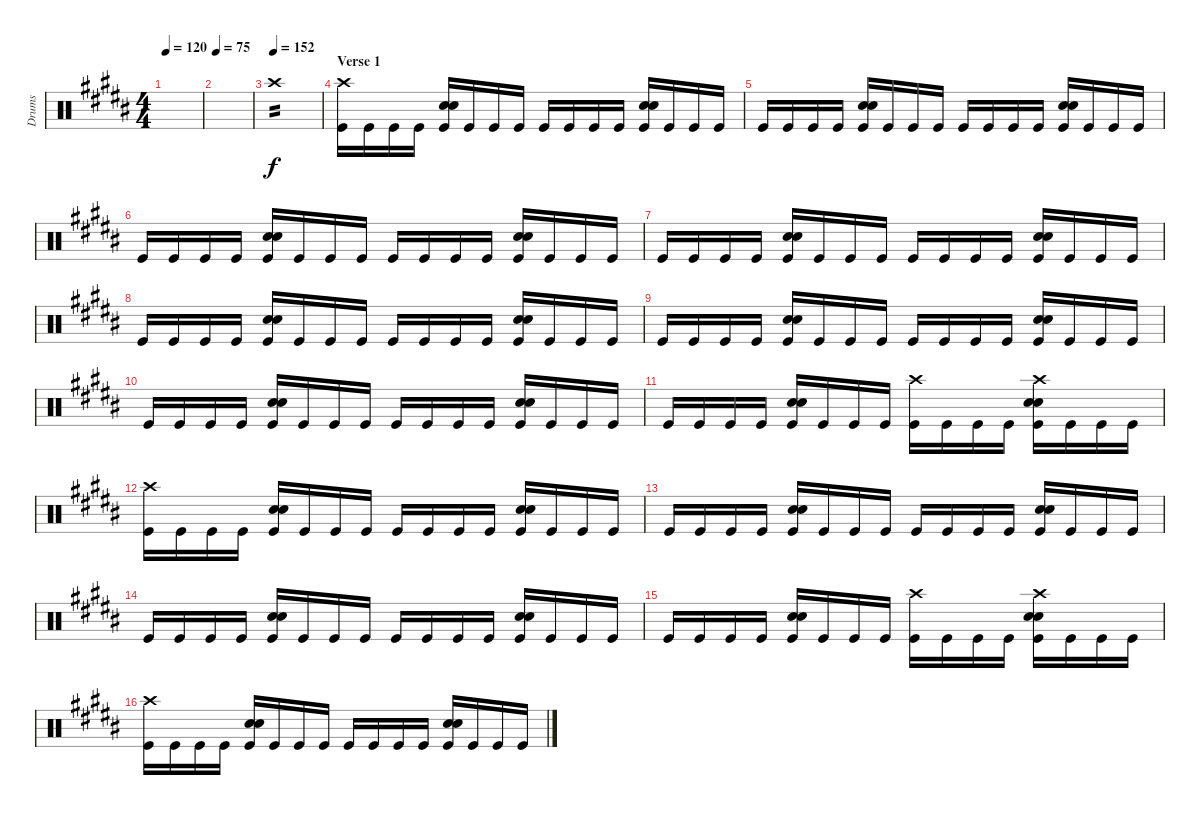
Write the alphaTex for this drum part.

\track ("Drums" "Drums") {instrument percussion}
\staff {score}
\articulation defaults
\ts (4 4)
\tempo 120
\clef neutral
\ks b
|
\tempo 75
|
\tempo (152)
"Crash high (hit)".1{tp 2} |
\section ("" "Verse 1")
("Crash high (hit)" "Kick (hit)").16 "Kick (hit)".16 "Kick (hit)".16 "Kick (hit)".16 ("Snare (hit) 2" "Electric Snare (hit)" "Kick (hit)").16 "Kick (hit)".16 "Kick (hit)".16 "Kick (hit)".16 "Kick (hit)".16 "Kick (hit)".16 "Kick (hit)".16 "Kick (hit)".16 ("Snare (hit) 2" "Electric Snare (hit)" "Kick (hit)").16 "Kick (hit)".16 "Kick (hit)".16 "Kick (hit)".16 |
"Kick (hit)".16 "Kick (hit)".16 "Kick (hit)".16 "Kick (hit)".16 ("Snare (hit) 2" "Electric Snare (hit)" "Kick (hit)").16 "Kick (hit)".16 "Kick (hit)".16 "Kick (hit)".16 "Kick (hit)".16 "Kick (hit)".16 "Kick (hit)".16 "Kick (hit)".16 ("Snare (hit) 2" "Electric Snare (hit)" "Kick (hit)").16 "Kick (hit)".16 "Kick (hit)".16 "Kick (hit)".16 |
"Kick (hit)".16 "Kick (hit)".16 "Kick (hit)".16 "Kick (hit)".16 ("Snare (hit) 2" "Electric Snare (hit)" "Kick (hit)").16 "Kick (hit)".16 "Kick (hit)".16 "Kick (hit)".16 "Kick (hit)".16 "Kick (hit)".16 "Kick (hit)".16 "Kick (hit)".16 ("Snare (hit) 2" "Electric Snare (hit)" "Kick (hit)").16 "Kick (hit)".16 "Kick (hit)".16 "Kick (hit)".16 |
"Kick (hit)".16 "Kick (hit)".16 "Kick (hit)".16 "Kick (hit)".16 ("Snare (hit) 2" "Electric Snare (hit)" "Kick (hit)").16 "Kick (hit)".16 "Kick (hit)".16 "Kick (hit)".16 "Kick (hit)".16 "Kick (hit)".16 "Kick (hit)".16 "Kick (hit)".16 ("Snare (hit) 2" "Electric Snare (hit)" "Kick (hit)").16 "Kick (hit)".16 "Kick (hit)".16 "Kick (hit)".16 |
"Kick (hit)".16 "Kick (hit)".16 "Kick (hit)".16 "Kick (hit)".16 ("Snare (hit) 2" "Electric Snare (hit)" "Kick (hit)").16 "Kick (hit)".16 "Kick (hit)".16 "Kick (hit)".16 "Kick (hit)".16 "Kick (hit)".16 "Kick (hit)".16 "Kick (hit)".16 ("Snare (hit) 2" "Electric Snare (hit)" "Kick (hit)").16 "Kick (hit)".16 "Kick (hit)".16 "Kick (hit)".16 |
"Kick (hit)".16 "Kick (hit)".16 "Kick (hit)".16 "Kick (hit)".16 ("Snare (hit) 2" "Electric Snare (hit)" "Kick (hit)").16 "Kick (hit)".16 "Kick (hit)".16 "Kick (hit)".16 "Kick (hit)".16 "Kick (hit)".16 "Kick (hit)".16 "Kick (hit)".16 ("Snare (hit) 2" "Electric Snare (hit)" "Kick (hit)").16 "Kick (hit)".16 "Kick (hit)".16 "Kick (hit)".16 |
"Kick (hit)".16 "Kick (hit)".16 "Kick (hit)".16 "Kick (hit)".16 ("Snare (hit) 2" "Electric Snare (hit)" "Kick (hit)").16 "Kick (hit)".16 "Kick (hit)".16 "Kick (hit)".16 "Kick (hit)".16 "Kick (hit)".16 "Kick (hit)".16 "Kick (hit)".16 ("Snare (hit) 2" "Electric Snare (hit)" "Kick (hit)").16 "Kick (hit)".16 "Kick (hit)".16 "Kick (hit)".16 |
"Kick (hit)".16 "Kick (hit)".16 "Kick (hit)".16 "Kick (hit)".16 ("Snare (hit) 2" "Electric Snare (hit)" "Kick (hit)").16 "Kick (hit)".16 "Kick (hit)".16 "Kick (hit)".16 ("Crash high (hit)" "Kick (hit)").16 "Kick (hit)".16 "Kick (hit)".16 "Kick (hit)".16 ("Crash high (hit)" "Snare (hit) 2" "Electric Snare (hit)" "Kick (hit)").16 "Kick (hit)".16 "Kick (hit)".16 "Kick (hit)".16 |
("Crash high (hit)" "Kick (hit)").16 "Kick (hit)".16 "Kick (hit)".16 "Kick (hit)".16 ("Snare (hit) 2" "Electric Snare (hit)" "Kick (hit)").16 "Kick (hit)".16 "Kick (hit)".16 "Kick (hit)".16 "Kick (hit)".16 "Kick (hit)".16 "Kick (hit)".16 "Kick (hit)".16 ("Snare (hit) 2" "Electric Snare (hit)" "Kick (hit)").16 "Kick (hit)".16 "Kick (hit)".16 "Kick (hit)".16 |
"Kick (hit)".16 "Kick (hit)".16 "Kick (hit)".16 "Kick (hit)".16 ("Snare (hit) 2" "Electric Snare (hit)" "Kick (hit)").16 "Kick (hit)".16 "Kick (hit)".16 "Kick (hit)".16 "Kick (hit)".16 "Kick (hit)".16 "Kick (hit)".16 "Kick (hit)".16 ("Snare (hit) 2" "Electric Snare (hit)" "Kick (hit)").16 "Kick (hit)".16 "Kick (hit)".16 "Kick (hit)".16 |
"Kick (hit)".16 "Kick (hit)".16 "Kick (hit)".16 "Kick (hit)".16 ("Snare (hit) 2" "Electric Snare (hit)" "Kick (hit)").16 "Kick (hit)".16 "Kick (hit)".16 "Kick (hit)".16 "Kick (hit)".16 "Kick (hit)".16 "Kick (hit)".16 "Kick (hit)".16 ("Snare (hit) 2" "Electric Snare (hit)" "Kick (hit)").16 "Kick (hit)".16 "Kick (hit)".16 "Kick (hit)".16 |
"Kick (hit)".16 "Kick (hit)".16 "Kick (hit)".16 "Kick (hit)".16 ("Snare (hit) 2" "Electric Snare (hit)" "Kick (hit)").16 "Kick (hit)".16 "Kick (hit)".16 "Kick (hit)".16 ("Crash high (hit)" "Kick (hit)").16 "Kick (hit)".16 "Kick (hit)".16 "Kick (hit)".16 ("Crash high (hit)" "Snare (hit) 2" "Electric Snare (hit)" "Kick (hit)").16 "Kick (hit)".16 "Kick (hit)".16 "Kick (hit)".16 |
("Crash high (hit)" "Kick (hit)").16 "Kick (hit)".16 "Kick (hit)".16 "Kick (hit)".16 ("Snare (hit) 2" "Electric Snare (hit)" "Kick (hit)").16 "Kick (hit)".16 "Kick (hit)".16 "Kick (hit)".16 "Kick (hit)".16 "Kick (hit)".16 "Kick (hit)".16 "Kick (hit)".16 ("Snare (hit) 2" "Electric Snare (hit)" "Kick (hit)").16 "Kick (hit)".16 "Kick (hit)".16 "Kick (hit)".16
